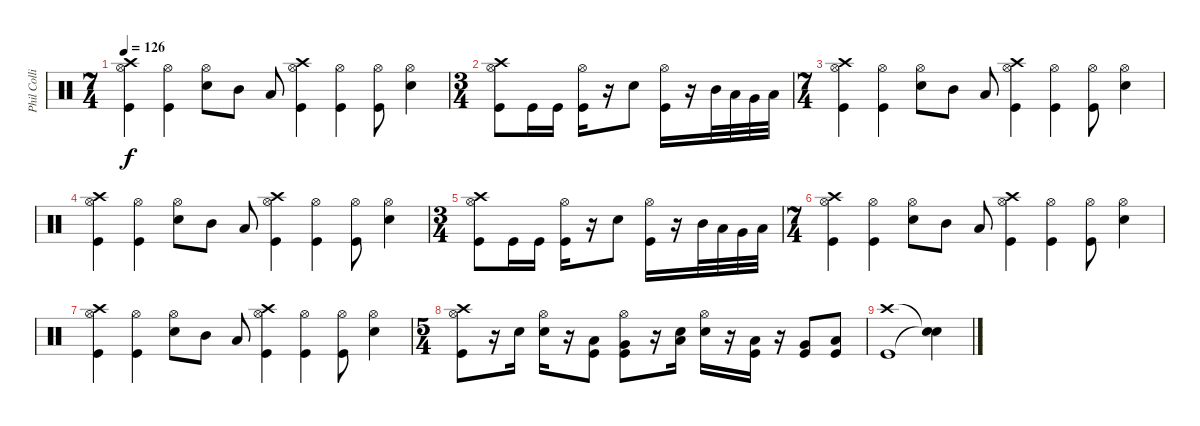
\track ("Phil Collins (drums)" "Phil Colli") {instrument percussion}
\staff {score}
\articulation defaults
\ts (7 4)
\tempo 126
\clef neutral
\ks c
("Crash high (hit)" "Hi-Hat (open)" "Kick (hit)").4{dy f} ("Hi-Hat (open)" "Kick (hit)").4 ("Hi-Hat (open)" "Snare (hit) 2").8 "Mid Tom (hit)".8 "Low Tom (hit)".8 ("Crash high (hit)" "Hi-Hat (open)" "Kick (hit)").4 ("Hi-Hat (open)" "Kick (hit)").4 ("Hi-Hat (open)" "Kick (hit)").8 ("Hi-Hat (open)" "Snare (hit) 2").4 |
\ts (3 4)
("Crash high (hit)" "Hi-Hat (open)" "Kick (hit)").8 "Kick (hit)".16 "Kick (hit)".16 ("Hi-Hat (open)" "Kick (hit)").16 r.16 "Snare (hit) 2".8 ("Hi-Hat (open)" "Kick (hit)").16 r.16 "Mid Tom (hit)".32 "Low Tom (hit)".32 "Very Low Tom (hit)".32 "Low Floor Tom (hit)".32 |
\ts (7 4)
("Crash high (hit)" "Hi-Hat (open)" "Kick (hit)").4 ("Hi-Hat (open)" "Kick (hit)").4 ("Hi-Hat (open)" "Snare (hit) 2").8 "Mid Tom (hit)".8 "Low Tom (hit)".8 ("Crash high (hit)" "Hi-Hat (open)" "Kick (hit)").4 ("Hi-Hat (open)" "Kick (hit)").4 ("Hi-Hat (open)" "Kick (hit)").8 ("Hi-Hat (open)" "Snare (hit) 2").4 |
("Crash high (hit)" "Hi-Hat (open)" "Kick (hit)").4 ("Hi-Hat (open)" "Kick (hit)").4 ("Hi-Hat (open)" "Snare (hit) 2").8 "Mid Tom (hit)".8 "Low Tom (hit)".8 ("Crash high (hit)" "Hi-Hat (open)" "Kick (hit)").4 ("Hi-Hat (open)" "Kick (hit)").4 ("Hi-Hat (open)" "Kick (hit)").8 ("Hi-Hat (open)" "Snare (hit) 2").4 |
\ts (3 4)
("Crash high (hit)" "Hi-Hat (open)" "Kick (hit)").8 "Kick (hit)".16 "Kick (hit)".16 ("Hi-Hat (open)" "Kick (hit)").16 r.16 "Snare (hit) 2".8 ("Hi-Hat (open)" "Kick (hit)").16 r.16 "Mid Tom (hit)".32 "Low Tom (hit)".32 "Very Low Tom (hit)".32 "Low Floor Tom (hit)".32 |
\ts (7 4)
("Crash high (hit)" "Hi-Hat (open)" "Kick (hit)").4 ("Hi-Hat (open)" "Kick (hit)").4 ("Hi-Hat (open)" "Snare (hit) 2").8 "Mid Tom (hit)".8 "Low Tom (hit)".8 ("Crash high (hit)" "Hi-Hat (open)" "Kick (hit)").4 ("Hi-Hat (open)" "Kick (hit)").4 ("Hi-Hat (open)" "Kick (hit)").8 ("Hi-Hat (open)" "Snare (hit) 2").4 |
("Crash high (hit)" "Hi-Hat (open)" "Kick (hit)").4 ("Hi-Hat (open)" "Kick (hit)").4 ("Hi-Hat (open)" "Snare (hit) 2").8 "Mid Tom (hit)".8 "Low Tom (hit)".8 ("Crash high (hit)" "Hi-Hat (open)" "Kick (hit)").4 ("Hi-Hat (open)" "Kick (hit)").4 ("Hi-Hat (open)" "Kick (hit)").8 ("Hi-Hat (open)" "Snare (hit) 2").4 |
\ts (5 4)
("Crash high (hit)" "Hi-Hat (open)" "Kick (hit)").8 r.16 "Snare (hit) 2".16 ("Hi-Hat (open)" "Snare (hit) 2").16 r.16 ("Low Tom (hit)" "Kick (hit)").8 ("Hi-Hat (open)" "Very Low Tom (hit)" "Kick (hit)").8 r.16 ("Low Floor Tom (hit)" "Snare (hit) 2").16 ("Hi-Hat (open)" "Snare (hit) 2").16 r.16 ("Low Tom (hit)" "Kick (hit)").16 r.16 ("Very Low Tom (hit)" "Kick (hit)").8 ("Low Floor Tom (hit)" "Kick (hit)").8 |
("Crash high (hit)" "Kick (hit)").1 ("Snare (hit)"{t} "Snare (hit)"{t}).4
